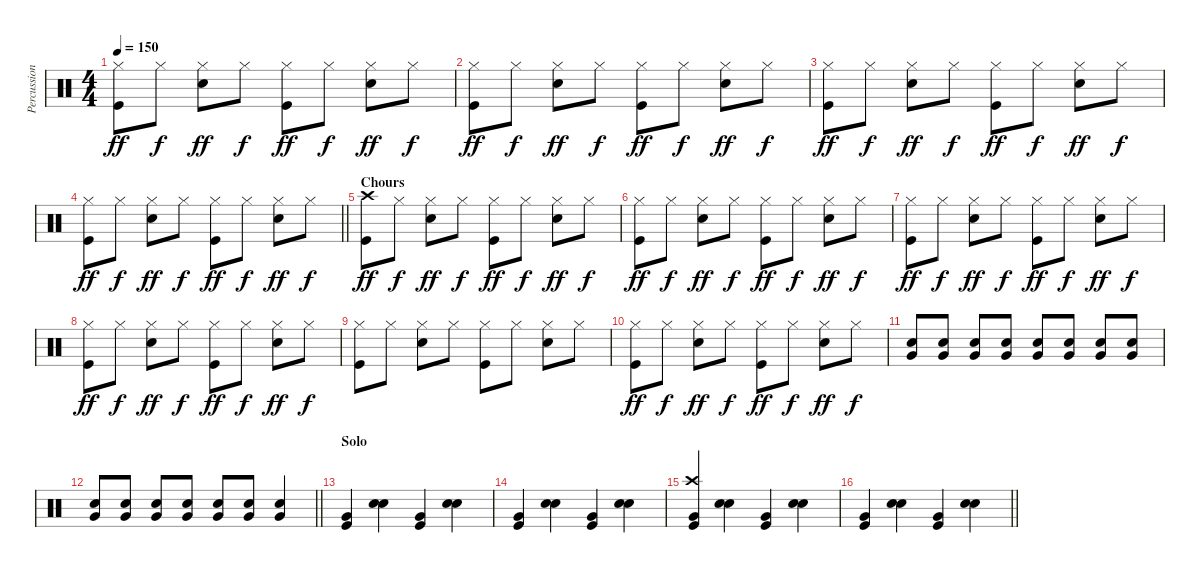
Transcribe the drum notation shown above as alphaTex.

\track ("Percussion" "Percussion") {instrument percussion}
\staff {score}
\articulation defaults
\ts (4 4)
\tempo 150
\clef neutral
\ks c
("Hi-Hat (closed)" "Kick (hit)").8{dy ff} "Hi-Hat (closed)".8{dy f} ("Hi-Hat (closed)" "Snare (hit) 2").8{dy ff} "Hi-Hat (closed)".8{dy f} ("Hi-Hat (closed)" "Kick (hit)").8{dy ff} "Hi-Hat (closed)".8{dy f} ("Hi-Hat (closed)" "Snare (hit) 2").8{dy ff} "Hi-Hat (closed)".8{dy f} |
("Hi-Hat (closed)" "Kick (hit)").8{dy ff} "Hi-Hat (closed)".8{dy f} ("Hi-Hat (closed)" "Snare (hit) 2").8{dy ff} "Hi-Hat (closed)".8{dy f} ("Hi-Hat (closed)" "Kick (hit)").8{dy ff} "Hi-Hat (closed)".8{dy f} ("Hi-Hat (closed)" "Snare (hit) 2").8{dy ff} "Hi-Hat (closed)".8{dy f} |
("Hi-Hat (closed)" "Kick (hit)").8{dy ff} "Hi-Hat (closed)".8{dy f} ("Hi-Hat (closed)" "Snare (hit) 2").8{dy ff} "Hi-Hat (closed)".8{dy f} ("Hi-Hat (closed)" "Kick (hit)").8{dy ff} "Hi-Hat (closed)".8{dy f} ("Hi-Hat (closed)" "Snare (hit) 2").8{dy ff} "Hi-Hat (closed)".8{dy f} |
\barLineRight lightlight
("Hi-Hat (closed)" "Kick (hit)").8{dy ff} "Hi-Hat (closed)".8{dy f} ("Hi-Hat (closed)" "Snare (hit) 2").8{dy ff} "Hi-Hat (closed)".8{dy f} ("Hi-Hat (closed)" "Kick (hit)").8{dy ff} "Hi-Hat (closed)".8{dy f} ("Hi-Hat (closed)" "Snare (hit) 2").8{dy ff} "Hi-Hat (closed)".8{dy f} |
\section ("" "Chours")
("Crash high (hit)" "Kick (hit)").8{dy ff} "Hi-Hat (closed)".8{dy f} ("Hi-Hat (closed)" "Snare (hit) 2").8{dy ff} "Hi-Hat (closed)".8{dy f} ("Hi-Hat (closed)" "Kick (hit)").8{dy ff} "Hi-Hat (closed)".8{dy f} ("Hi-Hat (closed)" "Snare (hit) 2").8{dy ff} "Hi-Hat (closed)".8{dy f} |
("Hi-Hat (closed)" "Kick (hit)").8{dy ff} "Hi-Hat (closed)".8{dy f} ("Hi-Hat (closed)" "Snare (hit) 2").8{dy ff} "Hi-Hat (closed)".8{dy f} ("Hi-Hat (closed)" "Kick (hit)").8{dy ff} "Hi-Hat (closed)".8{dy f} ("Hi-Hat (closed)" "Snare (hit) 2").8{dy ff} "Hi-Hat (closed)".8{dy f} |
("Hi-Hat (closed)" "Kick (hit)").8{dy ff} "Hi-Hat (closed)".8{dy f} ("Hi-Hat (closed)" "Snare (hit) 2").8{dy ff} "Hi-Hat (closed)".8{dy f} ("Hi-Hat (closed)" "Kick (hit)").8{dy ff} "Hi-Hat (closed)".8{dy f} ("Hi-Hat (closed)" "Snare (hit) 2").8{dy ff} "Hi-Hat (closed)".8{dy f} |
("Hi-Hat (closed)" "Kick (hit)").8{dy ff} "Hi-Hat (closed)".8{dy f} ("Hi-Hat (closed)" "Snare (hit) 2").8{dy ff} "Hi-Hat (closed)".8{dy f} ("Hi-Hat (closed)" "Kick (hit)").8{dy ff} "Hi-Hat (closed)".8{dy f} ("Hi-Hat (closed)" "Snare (hit) 2").8{dy ff} "Hi-Hat (closed)".8{dy f} |
("Hi-Hat (closed)" "Kick (hit)").8 "Hi-Hat (closed)".8 ("Hi-Hat (closed)" "Snare (hit) 2").8 "Hi-Hat (closed)".8 ("Hi-Hat (closed)" "Kick (hit)").8 "Hi-Hat (closed)".8 ("Hi-Hat (closed)" "Snare (hit) 2").8 "Hi-Hat (closed)".8 |
("Hi-Hat (closed)" "Kick (hit)").8{dy ff} "Hi-Hat (closed)".8{dy f} ("Hi-Hat (closed)" "Snare (hit) 2").8{dy ff} "Hi-Hat (closed)".8{dy f} ("Hi-Hat (closed)" "Kick (hit)").8{dy ff} "Hi-Hat (closed)".8{dy f} ("Hi-Hat (closed)" "Snare (hit) 2").8{dy ff} "Hi-Hat (closed)".8{dy f} |
("Snare (hit) 2" "Very Low Tom (hit)").8 ("Snare (hit) 2" "Very Low Tom (hit)").8 ("Snare (hit) 2" "Very Low Tom (hit)").8 ("Snare (hit) 2" "Very Low Tom (hit)").8 ("Snare (hit) 2" "Very Low Tom (hit)").8 ("Snare (hit) 2" "Very Low Tom (hit)").8 ("Snare (hit) 2" "Very Low Tom (hit)").8 ("Snare (hit) 2" "Very Low Tom (hit)").8 |
\barLineRight lightlight
("Snare (hit) 2" "Very Low Tom (hit)").8 ("Snare (hit) 2" "Very Low Tom (hit)").8 ("Snare (hit) 2" "Very Low Tom (hit)").8 ("Snare (hit) 2" "Very Low Tom (hit)").8 ("Snare (hit) 2" "Very Low Tom (hit)").8 ("Snare (hit) 2" "Very Low Tom (hit)").8 ("Snare (hit) 2" "Very Low Tom (hit)").4 |
\section ("" "Solo")
("Kick (hit)" "Very Low Tom (hit)").4 ("Snare (hit) 2" "Snare (hit) 2").4 ("Kick (hit)" "Very Low Tom (hit)").4 ("Snare (hit) 2" "Snare (hit) 2").4 |
("Kick (hit)" "Very Low Tom (hit)").4 ("Snare (hit) 2" "Snare (hit) 2").4 ("Kick (hit)" "Very Low Tom (hit)").4 ("Snare (hit) 2" "Snare (hit) 2").4 |
("Kick (hit)" "Very Low Tom (hit)" "Crash high (hit)").4 ("Snare (hit) 2" "Snare (hit) 2").4 ("Kick (hit)" "Very Low Tom (hit)").4 ("Snare (hit) 2" "Snare (hit) 2").4 |
\barLineRight lightlight
("Kick (hit)" "Very Low Tom (hit)").4 ("Snare (hit) 2" "Snare (hit) 2").4 ("Kick (hit)" "Very Low Tom (hit)").4 ("Snare (hit) 2" "Snare (hit) 2").4
